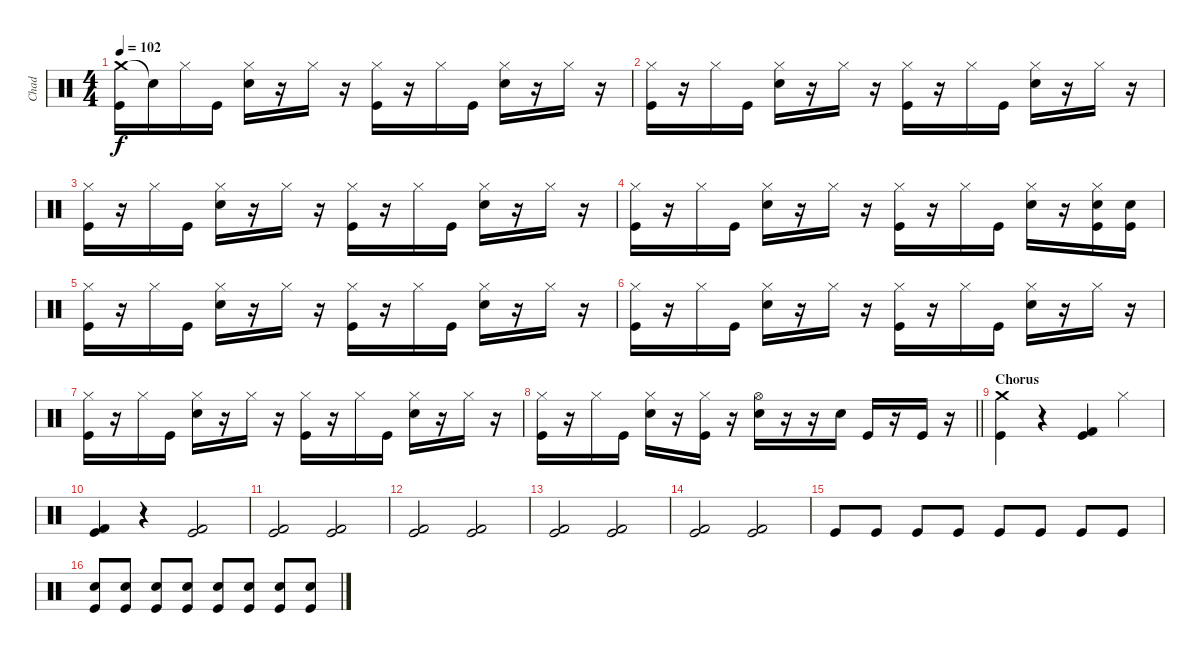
\track ("Chad" "Chad") {instrument percussion}
\staff {score}
\articulation defaults
\ts (4 4)
\tempo 102
\clef neutral
\ks c
("Crash medium (hit)" "Kick (hit)").16{dy f} "Snare (hit)"{t}.16 "Hi-Hat (closed)".16 "Kick (hit)".16 ("Hi-Hat (closed)" "Snare (hit) 2").16 r.16 "Hi-Hat (closed)".16 r.16 ("Hi-Hat (closed)" "Kick (hit)").16 r.16 "Hi-Hat (closed)".16 "Kick (hit)".16 ("Hi-Hat (closed)" "Snare (hit) 2").16 r.16 "Hi-Hat (closed)".16 r.16 |
("Hi-Hat (closed)" "Kick (hit)").16 r.16 "Hi-Hat (closed)".16 "Kick (hit)".16 ("Hi-Hat (closed)" "Snare (hit) 2").16 r.16 "Hi-Hat (closed)".16 r.16 ("Hi-Hat (closed)" "Kick (hit)").16 r.16 "Hi-Hat (closed)".16 "Kick (hit)".16 ("Hi-Hat (closed)" "Snare (hit) 2").16 r.16 "Hi-Hat (closed)".16 r.16 |
("Hi-Hat (closed)" "Kick (hit)").16 r.16 "Hi-Hat (closed)".16 "Kick (hit)".16 ("Hi-Hat (closed)" "Snare (hit) 2").16 r.16 "Hi-Hat (closed)".16 r.16 ("Hi-Hat (closed)" "Kick (hit)").16 r.16 "Hi-Hat (closed)".16 "Kick (hit)".16 ("Hi-Hat (closed)" "Snare (hit) 2").16 r.16 "Hi-Hat (closed)".16 r.16 |
("Hi-Hat (closed)" "Kick (hit)").16 r.16 "Hi-Hat (closed)".16 "Kick (hit)".16 ("Hi-Hat (closed)" "Snare (hit) 2").16 r.16 "Hi-Hat (closed)".16 r.16 ("Hi-Hat (closed)" "Kick (hit)").16 r.16 "Hi-Hat (closed)".16 "Kick (hit)".16 ("Hi-Hat (closed)" "Snare (hit) 2").16 r.16 ("Hi-Hat (closed)" "Snare (hit) 2" "Kick (hit)").16 ("Snare (hit) 2" "Kick (hit)").16 |
("Hi-Hat (closed)" "Kick (hit)").16 r.16 "Hi-Hat (closed)".16 "Kick (hit)".16 ("Hi-Hat (closed)" "Snare (hit) 2").16 r.16 "Hi-Hat (closed)".16 r.16 ("Hi-Hat (closed)" "Kick (hit)").16 r.16 "Hi-Hat (closed)".16 "Kick (hit)".16 ("Hi-Hat (closed)" "Snare (hit) 2").16 r.16 "Hi-Hat (closed)".16 r.16 |
("Hi-Hat (closed)" "Kick (hit)").16 r.16 "Hi-Hat (closed)".16 "Kick (hit)".16 ("Hi-Hat (closed)" "Snare (hit) 2").16 r.16 "Hi-Hat (closed)".16 r.16 ("Hi-Hat (closed)" "Kick (hit)").16 r.16 "Hi-Hat (closed)".16 "Kick (hit)".16 ("Hi-Hat (closed)" "Snare (hit) 2").16 r.16 "Hi-Hat (closed)".16 r.16 |
("Hi-Hat (closed)" "Kick (hit)").16 r.16 "Hi-Hat (closed)".16 "Kick (hit)".16 ("Hi-Hat (closed)" "Snare (hit) 2").16 r.16 "Hi-Hat (closed)".16 r.16 ("Hi-Hat (closed)" "Kick (hit)").16 r.16 "Hi-Hat (closed)".16 "Kick (hit)".16 ("Hi-Hat (closed)" "Snare (hit) 2").16 r.16 "Hi-Hat (closed)".16 r.16 |
\barLineRight lightlight
("Hi-Hat (closed)" "Kick (hit)").16 r.16 "Hi-Hat (closed)".16 "Kick (hit)".16 ("Hi-Hat (closed)" "Snare (hit) 2").16 r.16 ("Hi-Hat (closed)" "Kick (hit)").16 r.16 ("Hi-Hat (open)" "Snare (hit) 2").16 r.16 r.16 "Snare (hit) 2".16 "Kick (hit)".16 r.16 "Kick (hit)".16 r.16 |
\section ("" "Chorus")
("Crash medium (hit)" "Kick (hit)").4 r.4 ("Kick (hit) 2" "Kick (hit)").4 "Hi-Hat (closed)".4 |
("Kick (hit) 2" "Kick (hit)").4 r.4 ("Kick (hit) 2" "Kick (hit)").2 |
("Kick (hit) 2" "Kick (hit)").2 ("Kick (hit) 2" "Kick (hit)").2 |
("Kick (hit) 2" "Kick (hit)").2 ("Kick (hit) 2" "Kick (hit)").2 |
("Kick (hit) 2" "Kick (hit)").2 ("Kick (hit) 2" "Kick (hit)").2 |
("Kick (hit) 2" "Kick (hit)").2 ("Kick (hit) 2" "Kick (hit)").2 |
"Kick (hit)".8 "Kick (hit)".8 "Kick (hit)".8 "Kick (hit)".8 "Kick (hit)".8 "Kick (hit)".8 "Kick (hit)".8 "Kick (hit)".8 |
("Snare (hit) 2" "Kick (hit)").8 ("Snare (hit) 2" "Kick (hit)").8 ("Snare (hit) 2" "Kick (hit)").8 ("Snare (hit) 2" "Kick (hit)").8 ("Snare (hit) 2" "Kick (hit)").8 ("Snare (hit) 2" "Kick (hit)").8 ("Snare (hit) 2" "Kick (hit)").8 ("Snare (hit) 2" "Kick (hit)").8
